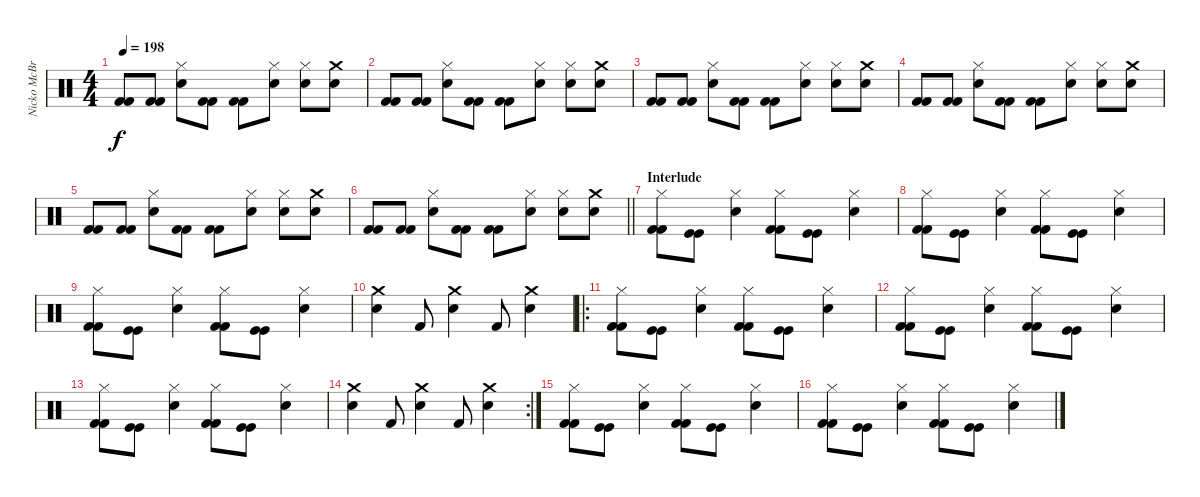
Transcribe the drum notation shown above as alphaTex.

\track ("Nicko McBrain" "Nicko McBr") {instrument percussion}
\staff {score}
\articulation defaults
\ts (4 4)
\tempo 198
\clef neutral
\ks c
("Kick (hit) 2" "Kick (hit) 2").8{dy f} ("Kick (hit) 2" "Kick (hit) 2").8 ("Hi-Hat (closed)" "Electric Snare (hit)").8 ("Kick (hit) 2" "Kick (hit) 2").8 ("Kick (hit) 2" "Kick (hit) 2").8 ("Hi-Hat (closed)" "Electric Snare (hit)").8 ("Hi-Hat (closed)" "Electric Snare (hit)").8 ("Crash medium (hit)" "Electric Snare (hit)").8 |
("Kick (hit) 2" "Kick (hit) 2").8 ("Kick (hit) 2" "Kick (hit) 2").8 ("Hi-Hat (closed)" "Electric Snare (hit)").8 ("Kick (hit) 2" "Kick (hit) 2").8 ("Kick (hit) 2" "Kick (hit) 2").8 ("Hi-Hat (closed)" "Electric Snare (hit)").8 ("Hi-Hat (closed)" "Electric Snare (hit)").8 ("Crash medium (hit)" "Electric Snare (hit)").8 |
("Kick (hit) 2" "Kick (hit) 2").8 ("Kick (hit) 2" "Kick (hit) 2").8 ("Hi-Hat (closed)" "Electric Snare (hit)").8 ("Kick (hit) 2" "Kick (hit) 2").8 ("Kick (hit) 2" "Kick (hit) 2").8 ("Hi-Hat (closed)" "Electric Snare (hit)").8 ("Hi-Hat (closed)" "Electric Snare (hit)").8 ("Crash medium (hit)" "Electric Snare (hit)").8 |
("Kick (hit) 2" "Kick (hit) 2").8 ("Kick (hit) 2" "Kick (hit) 2").8 ("Hi-Hat (closed)" "Electric Snare (hit)").8 ("Kick (hit) 2" "Kick (hit) 2").8 ("Kick (hit) 2" "Kick (hit) 2").8 ("Hi-Hat (closed)" "Electric Snare (hit)").8 ("Hi-Hat (closed)" "Electric Snare (hit)").8 ("Crash medium (hit)" "Electric Snare (hit)").8 |
("Kick (hit) 2" "Kick (hit) 2").8 ("Kick (hit) 2" "Kick (hit) 2").8 ("Hi-Hat (closed)" "Electric Snare (hit)").8 ("Kick (hit) 2" "Kick (hit) 2").8 ("Kick (hit) 2" "Kick (hit) 2").8 ("Hi-Hat (closed)" "Electric Snare (hit)").8 ("Hi-Hat (closed)" "Electric Snare (hit)").8 ("Crash medium (hit)" "Electric Snare (hit)").8 |
\barLineRight lightlight
("Kick (hit) 2" "Kick (hit) 2").8 ("Kick (hit) 2" "Kick (hit) 2").8 ("Hi-Hat (closed)" "Electric Snare (hit)").8 ("Kick (hit) 2" "Kick (hit) 2").8 ("Kick (hit) 2" "Kick (hit) 2").8 ("Hi-Hat (closed)" "Electric Snare (hit)").8 ("Hi-Hat (closed)" "Electric Snare (hit)").8 ("Crash medium (hit)" "Electric Snare (hit)").8 |
\section ("" "Interlude")
("Hi-Hat (closed)" "Kick (hit) 2" "Kick (hit) 2").8 ("Kick (hit)" "Kick (hit)").8 ("Hi-Hat (closed)" "Electric Snare (hit)").4 ("Hi-Hat (closed)" "Kick (hit) 2" "Kick (hit) 2").8 ("Kick (hit)" "Kick (hit)").8 ("Hi-Hat (closed)" "Electric Snare (hit)").4 |
("Hi-Hat (closed)" "Kick (hit) 2" "Kick (hit) 2").8 ("Kick (hit)" "Kick (hit)").8 ("Hi-Hat (closed)" "Electric Snare (hit)").4 ("Hi-Hat (closed)" "Kick (hit) 2" "Kick (hit) 2").8 ("Kick (hit)" "Kick (hit)").8 ("Hi-Hat (closed)" "Electric Snare (hit)").4 |
("Hi-Hat (closed)" "Kick (hit) 2" "Kick (hit) 2").8 ("Kick (hit)" "Kick (hit)").8 ("Hi-Hat (closed)" "Electric Snare (hit)").4 ("Hi-Hat (closed)" "Kick (hit) 2" "Kick (hit) 2").8 ("Kick (hit)" "Kick (hit)").8 ("Hi-Hat (closed)" "Electric Snare (hit)").4 |
("Crash medium (hit)" "Electric Snare (hit)").4 "Kick (hit) 2".8 ("Crash medium (hit)" "Electric Snare (hit)").4 "Kick (hit) 2".8 ("Crash medium (hit)" "Electric Snare (hit)").4 |
\ro
("Hi-Hat (closed)" "Kick (hit) 2" "Kick (hit) 2").8 ("Kick (hit)" "Kick (hit)").8 ("Hi-Hat (closed)" "Electric Snare (hit)").4 ("Hi-Hat (closed)" "Kick (hit) 2" "Kick (hit) 2").8 ("Kick (hit)" "Kick (hit)").8 ("Hi-Hat (closed)" "Electric Snare (hit)").4 |
("Hi-Hat (closed)" "Kick (hit) 2" "Kick (hit) 2").8 ("Kick (hit)" "Kick (hit)").8 ("Hi-Hat (closed)" "Electric Snare (hit)").4 ("Hi-Hat (closed)" "Kick (hit) 2" "Kick (hit) 2").8 ("Kick (hit)" "Kick (hit)").8 ("Hi-Hat (closed)" "Electric Snare (hit)").4 |
("Hi-Hat (closed)" "Kick (hit) 2" "Kick (hit) 2").8 ("Kick (hit)" "Kick (hit)").8 ("Hi-Hat (closed)" "Electric Snare (hit)").4 ("Hi-Hat (closed)" "Kick (hit) 2" "Kick (hit) 2").8 ("Kick (hit)" "Kick (hit)").8 ("Hi-Hat (closed)" "Electric Snare (hit)").4 |
\rc 2
("Crash medium (hit)" "Electric Snare (hit)").4 "Kick (hit) 2".8 ("Crash medium (hit)" "Electric Snare (hit)").4 "Kick (hit) 2".8 ("Crash medium (hit)" "Electric Snare (hit)").4 |
("Hi-Hat (closed)" "Kick (hit) 2" "Kick (hit) 2").8 ("Kick (hit)" "Kick (hit)").8 ("Hi-Hat (closed)" "Electric Snare (hit)").4 ("Hi-Hat (closed)" "Kick (hit) 2" "Kick (hit) 2").8 ("Kick (hit)" "Kick (hit)").8 ("Hi-Hat (closed)" "Electric Snare (hit)").4 |
("Hi-Hat (closed)" "Kick (hit) 2" "Kick (hit) 2").8 ("Kick (hit)" "Kick (hit)").8 ("Hi-Hat (closed)" "Electric Snare (hit)").4 ("Hi-Hat (closed)" "Kick (hit) 2" "Kick (hit) 2").8 ("Kick (hit)" "Kick (hit)").8 ("Hi-Hat (closed)" "Electric Snare (hit)").4
